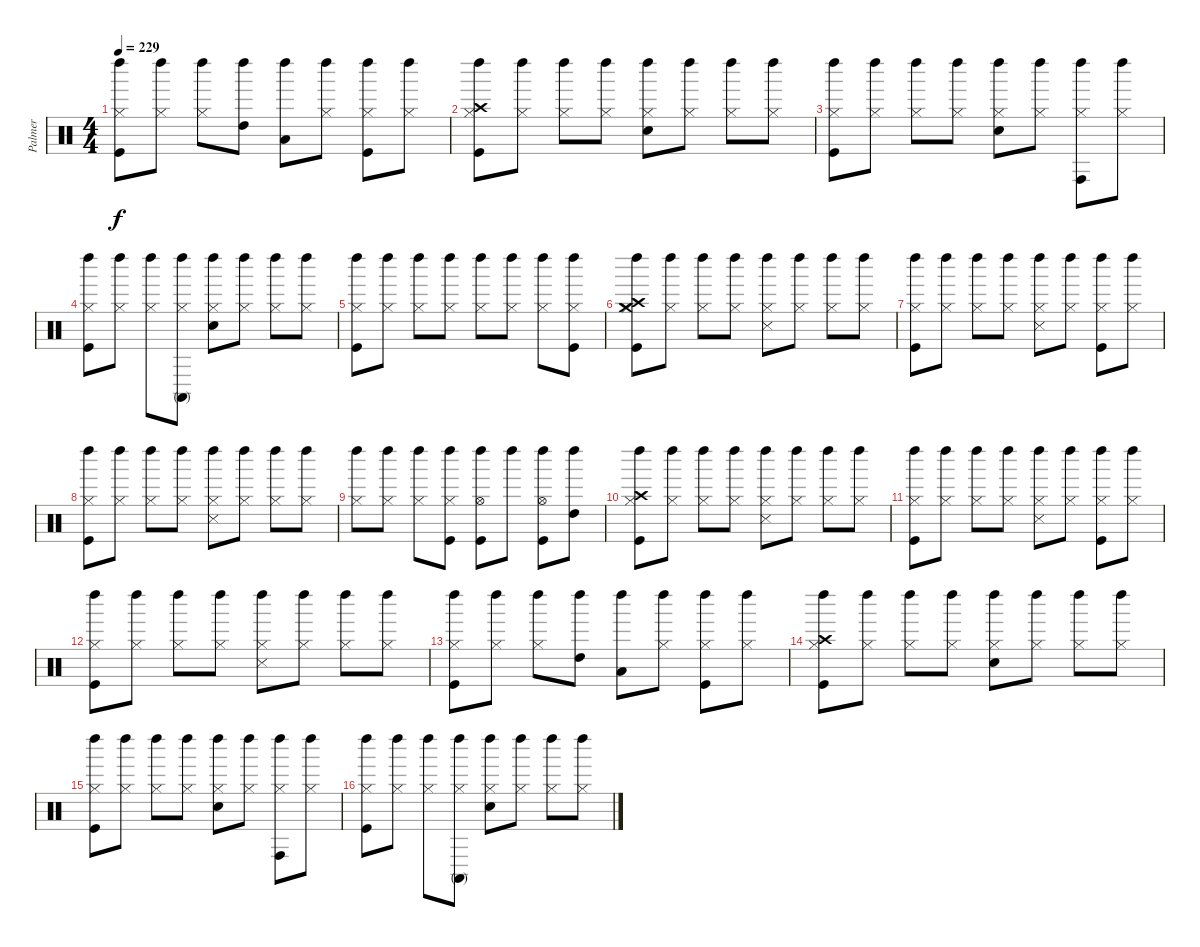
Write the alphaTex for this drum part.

\track ("Palmer" "Palmer") {instrument percussion}
\staff {score}
\articulation defaults
\ts (4 4)
\tempo 229
\clef neutral
\ks c
("Kick (hit)" "Hi-Hat (closed)" "Left Maraca (hit)").8{dy f} ("Hi-Hat (closed)" "Left Maraca (hit)").8 ("Hi-Hat (closed)" "Left Maraca (hit)").8 ("High Tom (hit)" "Left Maraca (hit)").8 ("Low Tom (hit)" "Left Maraca (hit)").8 ("Hi-Hat (closed)" "Left Maraca (hit)").8 ("Kick (hit)" "Hi-Hat (closed)" "Left Maraca (hit)").8 ("Hi-Hat (closed)" "Left Maraca (hit)").8 |
("Kick (hit)" "Hi-Hat (closed)" "Crash high (hit)" "Left Maraca (hit)").8 ("Hi-Hat (closed)" "Left Maraca (hit)").8 ("Hi-Hat (closed)" "Left Maraca (hit)").8 ("Hi-Hat (closed)" "Left Maraca (hit)").8 ("Snare (hit) 2" "Hi-Hat (closed)" "Left Maraca (hit)").8 ("Hi-Hat (closed)" "Left Maraca (hit)").8 ("Hi-Hat (closed)" "Left Maraca (hit)").8 ("Hi-Hat (closed)" "Left Maraca (hit)").8 |
("Kick (hit)" "Hi-Hat (closed)" "Left Maraca (hit)").8 ("Hi-Hat (closed)" "Left Maraca (hit)").8 ("Hi-Hat (closed)" "Left Maraca (hit)").8 ("Hi-Hat (closed)" "Left Maraca (hit)").8 ("Snare (hit) 2" "Hi-Hat (closed)" "Left Maraca (hit)").8 ("Hi-Hat (closed)" "Left Maraca (hit)").8 ("Hi-Hat (closed)" "Conga high (hit)" "Left Maraca (hit)").8 ("Hi-Hat (closed)" "Left Maraca (hit)").8 |
("Kick (hit)" "Hi-Hat (closed)" "Left Maraca (hit)").8 ("Hi-Hat (closed)" "Left Maraca (hit)").8 ("Hi-Hat (closed)" "Left Maraca (hit)").8 ("Hi-Hat (closed)" "Conga high (mute)" "Left Maraca (hit)").8 ("Snare (hit) 2" "Hi-Hat (closed)" "Left Maraca (hit)").8 ("Hi-Hat (closed)" "Left Maraca (hit)").8 ("Hi-Hat (closed)" "Left Maraca (hit)").8 ("Hi-Hat (closed)" "Left Maraca (hit)").8 |
("Kick (hit)" "Hi-Hat (closed)" "Left Maraca (hit)").8 ("Hi-Hat (closed)" "Left Maraca (hit)").8 ("Hi-Hat (closed)" "Left Maraca (hit)").8 ("Hi-Hat (closed)" "Left Maraca (hit)").8 ("Hi-Hat (closed)" "Left Maraca (hit)").8 ("Hi-Hat (closed)" "Left Maraca (hit)").8 ("Hi-Hat (closed)" "Left Maraca (hit)").8 ("Kick (hit)" "Hi-Hat (closed)" "Left Maraca (hit)").8 |
("Crash medium (hit)" "Kick (hit)" "Hi-Hat (closed)" "Crash high (hit)" "Left Maraca (hit)").8 ("Hi-Hat (closed)" "Left Maraca (hit)").8 ("Hi-Hat (closed)" "Left Maraca (hit)").8 ("Hi-Hat (closed)" "Left Maraca (hit)").8 ("Hi-Hat (closed)" "Snare (side stick) 3" "Left Maraca (hit)").8 ("Hi-Hat (closed)" "Left Maraca (hit)").8 ("Hi-Hat (closed)" "Left Maraca (hit)").8 ("Hi-Hat (closed)" "Left Maraca (hit)").8 |
("Kick (hit)" "Hi-Hat (closed)" "Left Maraca (hit)").8 ("Hi-Hat (closed)" "Left Maraca (hit)").8 ("Hi-Hat (closed)" "Left Maraca (hit)").8 ("Hi-Hat (closed)" "Left Maraca (hit)").8 ("Hi-Hat (closed)" "Snare (side stick) 3" "Left Maraca (hit)").8 ("Hi-Hat (closed)" "Left Maraca (hit)").8 ("Kick (hit)" "Hi-Hat (closed)" "Left Maraca (hit)").8 ("Hi-Hat (closed)" "Left Maraca (hit)").8 |
("Kick (hit)" "Hi-Hat (closed)" "Left Maraca (hit)").8 ("Hi-Hat (closed)" "Left Maraca (hit)").8 ("Hi-Hat (closed)" "Left Maraca (hit)").8 ("Hi-Hat (closed)" "Left Maraca (hit)").8 ("Hi-Hat (closed)" "Snare (side stick) 3" "Left Maraca (hit)").8 ("Hi-Hat (closed)" "Left Maraca (hit)").8 ("Hi-Hat (closed)" "Left Maraca (hit)").8 ("Hi-Hat (closed)" "Left Maraca (hit)").8 |
("Hi-Hat (closed)" "Left Maraca (hit)").8 ("Hi-Hat (closed)" "Left Maraca (hit)").8 ("Hi-Hat (closed)" "Left Maraca (hit)").8 ("Kick (hit)" "Hi-Hat (closed)" "Left Maraca (hit)").8 ("Kick (hit)" "Hi-Hat (open)" "Left Maraca (hit)").8 "Left Maraca (hit)".8 ("Kick (hit)" "Hi-Hat (open)" "Left Maraca (hit)").8 ("High Tom (hit)" "Left Maraca (hit)").8 |
("Kick (hit)" "Hi-Hat (closed)" "Crash high (hit)" "Left Maraca (hit)").8 ("Hi-Hat (closed)" "Left Maraca (hit)").8 ("Hi-Hat (closed)" "Left Maraca (hit)").8 ("Hi-Hat (closed)" "Left Maraca (hit)").8 ("Hi-Hat (closed)" "Snare (side stick) 3" "Left Maraca (hit)").8 ("Hi-Hat (closed)" "Left Maraca (hit)").8 ("Hi-Hat (closed)" "Left Maraca (hit)").8 ("Hi-Hat (closed)" "Left Maraca (hit)").8 |
("Kick (hit)" "Hi-Hat (closed)" "Left Maraca (hit)").8 ("Hi-Hat (closed)" "Left Maraca (hit)").8 ("Hi-Hat (closed)" "Left Maraca (hit)").8 ("Hi-Hat (closed)" "Left Maraca (hit)").8 ("Hi-Hat (closed)" "Snare (side stick) 3" "Left Maraca (hit)").8 ("Hi-Hat (closed)" "Left Maraca (hit)").8 ("Kick (hit)" "Hi-Hat (closed)" "Left Maraca (hit)").8 ("Hi-Hat (closed)" "Left Maraca (hit)").8 |
("Kick (hit)" "Hi-Hat (closed)" "Left Maraca (hit)").8 ("Hi-Hat (closed)" "Left Maraca (hit)").8 ("Hi-Hat (closed)" "Left Maraca (hit)").8 ("Hi-Hat (closed)" "Left Maraca (hit)").8 ("Hi-Hat (closed)" "Snare (side stick) 3" "Left Maraca (hit)").8 ("Hi-Hat (closed)" "Left Maraca (hit)").8 ("Hi-Hat (closed)" "Left Maraca (hit)").8 ("Hi-Hat (closed)" "Left Maraca (hit)").8 |
("Kick (hit)" "Hi-Hat (closed)" "Left Maraca (hit)").8 ("Hi-Hat (closed)" "Left Maraca (hit)").8 ("Hi-Hat (closed)" "Left Maraca (hit)").8 ("High Tom (hit)" "Left Maraca (hit)").8 ("Low Tom (hit)" "Left Maraca (hit)").8 ("Hi-Hat (closed)" "Left Maraca (hit)").8 ("Kick (hit)" "Hi-Hat (closed)" "Left Maraca (hit)").8 ("Hi-Hat (closed)" "Left Maraca (hit)").8 |
("Kick (hit)" "Hi-Hat (closed)" "Crash high (hit)" "Left Maraca (hit)").8 ("Hi-Hat (closed)" "Left Maraca (hit)").8 ("Hi-Hat (closed)" "Left Maraca (hit)").8 ("Hi-Hat (closed)" "Left Maraca (hit)").8 ("Snare (hit) 2" "Hi-Hat (closed)" "Left Maraca (hit)").8 ("Hi-Hat (closed)" "Left Maraca (hit)").8 ("Hi-Hat (closed)" "Left Maraca (hit)").8 ("Hi-Hat (closed)" "Left Maraca (hit)").8 |
("Kick (hit)" "Hi-Hat (closed)" "Left Maraca (hit)").8 ("Hi-Hat (closed)" "Left Maraca (hit)").8 ("Hi-Hat (closed)" "Left Maraca (hit)").8 ("Hi-Hat (closed)" "Left Maraca (hit)").8 ("Snare (hit) 2" "Hi-Hat (closed)" "Left Maraca (hit)").8 ("Hi-Hat (closed)" "Left Maraca (hit)").8 ("Hi-Hat (closed)" "Conga high (hit)" "Left Maraca (hit)").8 ("Hi-Hat (closed)" "Left Maraca (hit)").8 |
("Kick (hit)" "Hi-Hat (closed)" "Left Maraca (hit)").8 ("Hi-Hat (closed)" "Left Maraca (hit)").8 ("Hi-Hat (closed)" "Left Maraca (hit)").8 ("Hi-Hat (closed)" "Conga high (mute)" "Left Maraca (hit)").8 ("Snare (hit) 2" "Hi-Hat (closed)" "Left Maraca (hit)").8 ("Hi-Hat (closed)" "Left Maraca (hit)").8 ("Hi-Hat (closed)" "Left Maraca (hit)").8 ("Hi-Hat (closed)" "Left Maraca (hit)").8
